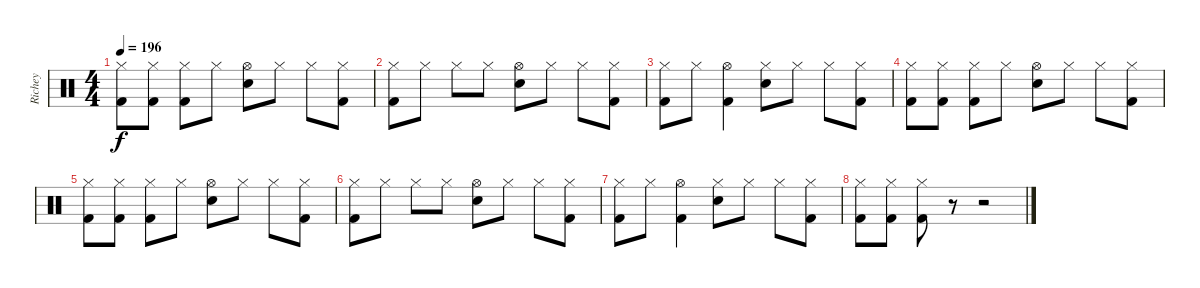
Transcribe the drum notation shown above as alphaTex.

\track ("Richey" "Richey") {instrument percussion}
\staff {score}
\articulation defaults
\ts (4 4)
\tempo 196
\clef neutral
\ks c
("Hi-Hat (closed)" "Kick (hit) 2").8{dy f} ("Hi-Hat (closed)" "Kick (hit) 2").8 ("Hi-Hat (closed)" "Kick (hit) 2").8 "Hi-Hat (closed)".8 ("Hi-Hat (open)" "Snare (hit) 2").8 "Hi-Hat (closed)".8 "Hi-Hat (closed)".8 ("Hi-Hat (closed)" "Kick (hit) 2").8 |
("Hi-Hat (closed)" "Kick (hit) 2").8 "Hi-Hat (closed)".8 "Hi-Hat (closed)".8 "Hi-Hat (closed)".8 ("Hi-Hat (open)" "Snare (hit) 2").8 "Hi-Hat (closed)".8 "Hi-Hat (closed)".8 ("Hi-Hat (closed)" "Kick (hit) 2").8 |
("Hi-Hat (closed)" "Kick (hit) 2").8 "Hi-Hat (closed)".8 ("Hi-Hat (open)" "Kick (hit) 2").4 ("Hi-Hat (closed)" "Snare (hit) 2").8 "Hi-Hat (closed)".8 "Hi-Hat (closed)".8 ("Hi-Hat (closed)" "Kick (hit) 2").8 |
("Hi-Hat (closed)" "Kick (hit) 2").8 ("Hi-Hat (closed)" "Kick (hit) 2").8 ("Hi-Hat (closed)" "Kick (hit) 2").8 "Hi-Hat (closed)".8 ("Hi-Hat (open)" "Snare (hit) 2").8 "Hi-Hat (closed)".8 "Hi-Hat (closed)".8 ("Hi-Hat (closed)" "Kick (hit) 2").8 |
("Hi-Hat (closed)" "Kick (hit) 2").8 ("Hi-Hat (closed)" "Kick (hit) 2").8 ("Hi-Hat (closed)" "Kick (hit) 2").8 "Hi-Hat (closed)".8 ("Hi-Hat (open)" "Snare (hit) 2").8 "Hi-Hat (closed)".8 "Hi-Hat (closed)".8 ("Hi-Hat (closed)" "Kick (hit) 2").8 |
("Hi-Hat (closed)" "Kick (hit) 2").8 "Hi-Hat (closed)".8 "Hi-Hat (closed)".8 "Hi-Hat (closed)".8 ("Hi-Hat (open)" "Snare (hit) 2").8 "Hi-Hat (closed)".8 "Hi-Hat (closed)".8 ("Hi-Hat (closed)" "Kick (hit) 2").8 |
("Hi-Hat (closed)" "Kick (hit) 2").8 "Hi-Hat (closed)".8 ("Hi-Hat (open)" "Kick (hit) 2").4 ("Hi-Hat (closed)" "Snare (hit) 2").8 "Hi-Hat (closed)".8 "Hi-Hat (closed)".8 ("Hi-Hat (closed)" "Kick (hit) 2").8 |
("Hi-Hat (closed)" "Kick (hit) 2").8 ("Hi-Hat (closed)" "Kick (hit) 2").8 ("Hi-Hat (closed)" "Kick (hit) 2").8 r.8 r.2
